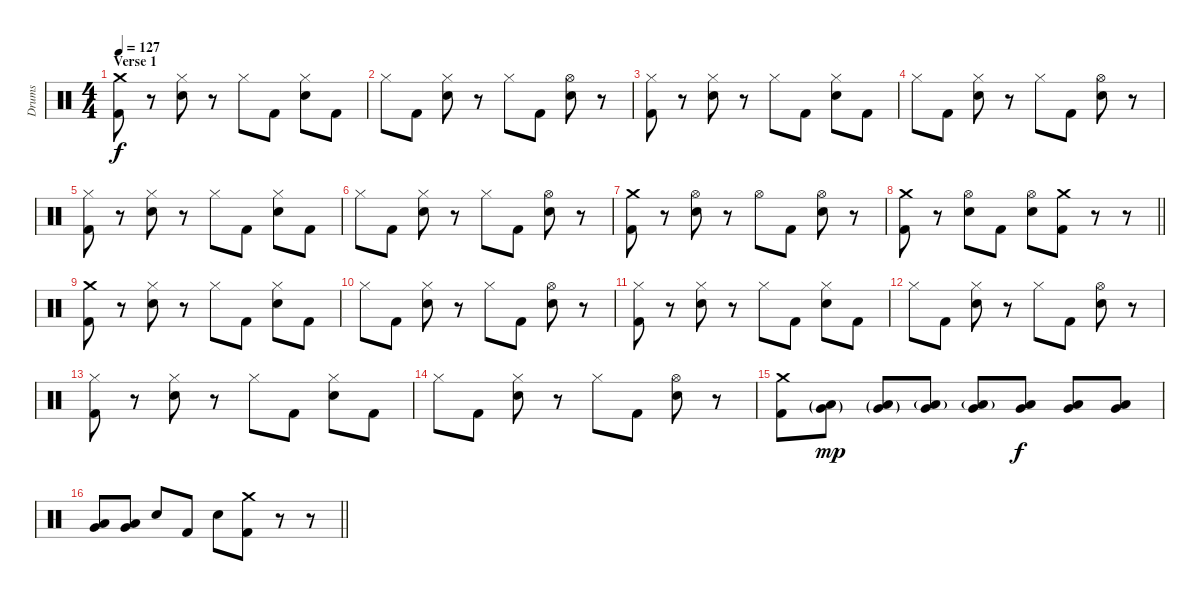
\track ("Drums" "Drums") {instrument percussion}
\staff {score}
\articulation defaults
\ts (4 4)
\section ("" "Verse 1")
\tempo 127
\clef neutral
\ks c
("Crash medium (hit)" "Kick (hit) 2").8{dy f} r.8 ("Hi-Hat (closed)" "Electric Snare (hit)").8 r.8 "Hi-Hat (closed)".8 "Kick (hit) 2".8 ("Hi-Hat (closed)" "Electric Snare (hit)").8 "Kick (hit) 2".8 |
"Hi-Hat (closed)".8 "Kick (hit) 2".8 ("Hi-Hat (closed)" "Electric Snare (hit)").8 r.8 "Hi-Hat (closed)".8 "Kick (hit) 2".8 ("Hi-Hat (open)" "Electric Snare (hit)").8 r.8 |
("Hi-Hat (closed)" "Kick (hit) 2").8 r.8 ("Hi-Hat (closed)" "Electric Snare (hit)").8 r.8 "Hi-Hat (closed)".8 "Kick (hit) 2".8 ("Hi-Hat (closed)" "Electric Snare (hit)").8 "Kick (hit) 2".8 |
"Hi-Hat (closed)".8 "Kick (hit) 2".8 ("Hi-Hat (closed)" "Electric Snare (hit)").8 r.8 "Hi-Hat (closed)".8 "Kick (hit) 2".8 ("Hi-Hat (open)" "Electric Snare (hit)").8 r.8 |
("Hi-Hat (closed)" "Kick (hit) 2").8 r.8 ("Hi-Hat (closed)" "Electric Snare (hit)").8 r.8 "Hi-Hat (closed)".8 "Kick (hit) 2".8 ("Hi-Hat (closed)" "Electric Snare (hit)").8 "Kick (hit) 2".8 |
"Hi-Hat (closed)".8 "Kick (hit) 2".8 ("Hi-Hat (closed)" "Electric Snare (hit)").8 r.8 "Hi-Hat (closed)".8 "Kick (hit) 2".8 ("Hi-Hat (open)" "Electric Snare (hit)").8 r.8 |
("Crash medium (hit)" "Kick (hit) 2").8 r.8 ("Hi-Hat (open)" "Electric Snare (hit)").8 r.8 "Hi-Hat (open)".8 "Kick (hit) 2".8 ("Hi-Hat (open)" "Electric Snare (hit)").8 r.8 |
\barLineRight lightlight
("Crash medium (hit)" "Kick (hit) 2").8 r.8 ("Hi-Hat (open)" "Electric Snare (hit)").8 "Kick (hit) 2".8 ("Hi-Hat (open)" "Electric Snare (hit)").8 ("Crash medium (hit)" "Kick (hit) 2").8 r.8 r.8 |
("Crash medium (hit)" "Kick (hit) 2").8 r.8 ("Hi-Hat (closed)" "Electric Snare (hit)").8 r.8 "Hi-Hat (closed)".8 "Kick (hit) 2".8 ("Hi-Hat (closed)" "Electric Snare (hit)").8 "Kick (hit) 2".8 |
"Hi-Hat (closed)".8 "Kick (hit) 2".8 ("Hi-Hat (closed)" "Electric Snare (hit)").8 r.8 "Hi-Hat (closed)".8 "Kick (hit) 2".8 ("Hi-Hat (open)" "Electric Snare (hit)").8 r.8 |
("Hi-Hat (closed)" "Kick (hit) 2").8 r.8 ("Hi-Hat (closed)" "Electric Snare (hit)").8 r.8 "Hi-Hat (closed)".8 "Kick (hit) 2".8 ("Hi-Hat (closed)" "Electric Snare (hit)").8 "Kick (hit) 2".8 |
"Hi-Hat (closed)".8 "Kick (hit) 2".8 ("Hi-Hat (closed)" "Electric Snare (hit)").8 r.8 "Hi-Hat (closed)".8 "Kick (hit) 2".8 ("Hi-Hat (open)" "Electric Snare (hit)").8 r.8 |
("Hi-Hat (closed)" "Kick (hit) 2").8 r.8 ("Hi-Hat (closed)" "Electric Snare (hit)").8 r.8 "Hi-Hat (closed)".8 "Kick (hit) 2".8 ("Hi-Hat (closed)" "Electric Snare (hit)").8 "Kick (hit) 2".8 |
"Hi-Hat (closed)".8 "Kick (hit) 2".8 ("Hi-Hat (closed)" "Electric Snare (hit)").8 r.8 "Hi-Hat (closed)".8 "Kick (hit) 2".8 ("Hi-Hat (open)" "Electric Snare (hit)").8 r.8 |
("Crash medium (hit)" "Kick (hit) 2").8{volume 12} ("Very Low Tom (hit)"{g} "Low Floor Tom (hit)"{g}).8{dy mp} ("Very Low Tom (hit)"{g} "Low Floor Tom (hit)"{g}).8 ("Very Low Tom (hit)" "Low Floor Tom (hit)"{g}).8 ("Very Low Tom (hit)" "Low Floor Tom (hit)"{g}).8 ("Very Low Tom (hit)" "Low Floor Tom (hit)").8{dy f} ("Very Low Tom (hit)" "Low Floor Tom (hit)").8 ("Very Low Tom (hit)" "Low Floor Tom (hit)").8 |
\barLineRight lightlight
("Very Low Tom (hit)" "Low Floor Tom (hit)").8 ("Very Low Tom (hit)" "Low Floor Tom (hit)").8 "Electric Snare (hit)".8 "Kick (hit) 2".8 "Electric Snare (hit)".8 ("Crash medium (hit)" "Kick (hit) 2").8 r.8 r.8
